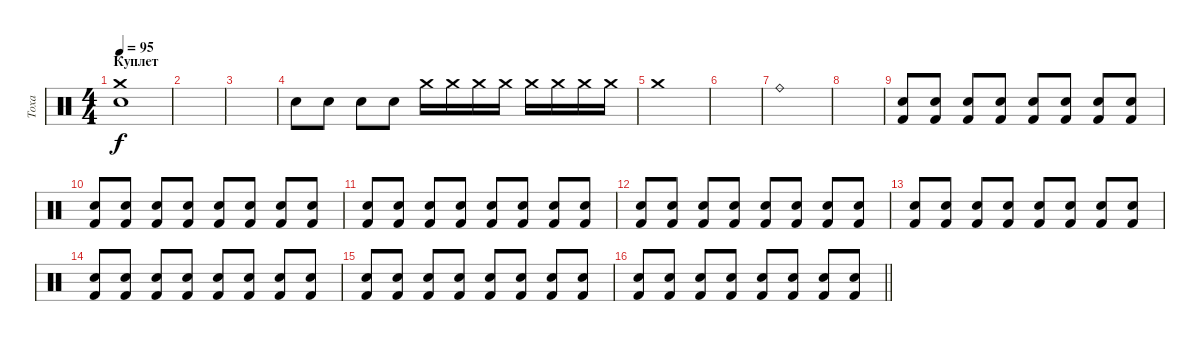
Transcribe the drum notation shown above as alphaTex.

\track ("Toxa" "Toxa") {instrument percussion}
\staff {score}
\articulation defaults
\ts (4 4)
\section ("" "Куплет")
\tempo 95
\clef neutral
\ks c
("Crash medium (hit)" "Electric Snare (hit)").1{dy f} |
|
|
"Snare (hit)".8 "Snare (hit)".8 "Snare (hit)".8 "Snare (hit)".8 "Crash medium (hit)".16{volume 5} "Crash medium (hit)".16{volume 5} "Crash medium (hit)".16{volume 6} "Crash medium (hit)".16{volume 6} "Crash medium (hit)".16{volume 7} "Crash medium (hit)".16{volume 7} "Crash medium (hit)".16{volume 8} "Crash medium (hit)".16{volume 9} |
"Crash medium (hit)".1{volume 10} |
|
"Ride (bell)".1 |
|
("Electric Snare (hit)" "Kick (hit) 2").8{volume 8} ("Electric Snare (hit)" "Kick (hit) 2").8{volume 12} ("Electric Snare (hit)" "Kick (hit) 2").8 ("Electric Snare (hit)" "Kick (hit) 2").8 ("Electric Snare (hit)" "Kick (hit) 2").8 ("Electric Snare (hit)" "Kick (hit) 2").8 ("Electric Snare (hit)" "Kick (hit) 2").8 ("Electric Snare (hit)" "Kick (hit) 2").8 |
("Electric Snare (hit)" "Kick (hit) 2").8 ("Electric Snare (hit)" "Kick (hit) 2").8 ("Electric Snare (hit)" "Kick (hit) 2").8 ("Electric Snare (hit)" "Kick (hit) 2").8 ("Electric Snare (hit)" "Kick (hit) 2").8 ("Electric Snare (hit)" "Kick (hit) 2").8 ("Electric Snare (hit)" "Kick (hit) 2").8 ("Electric Snare (hit)" "Kick (hit) 2").8 |
("Electric Snare (hit)" "Kick (hit) 2").8 ("Electric Snare (hit)" "Kick (hit) 2").8 ("Electric Snare (hit)" "Kick (hit) 2").8 ("Electric Snare (hit)" "Kick (hit) 2").8 ("Electric Snare (hit)" "Kick (hit) 2").8 ("Electric Snare (hit)" "Kick (hit) 2").8 ("Electric Snare (hit)" "Kick (hit) 2").8 ("Electric Snare (hit)" "Kick (hit) 2").8 |
("Electric Snare (hit)" "Kick (hit) 2").8 ("Electric Snare (hit)" "Kick (hit) 2").8 ("Electric Snare (hit)" "Kick (hit) 2").8 ("Electric Snare (hit)" "Kick (hit) 2").8 ("Electric Snare (hit)" "Kick (hit) 2").8 ("Electric Snare (hit)" "Kick (hit) 2").8 ("Electric Snare (hit)" "Kick (hit) 2").8 ("Electric Snare (hit)" "Kick (hit) 2").8 |
("Electric Snare (hit)" "Kick (hit) 2").8 ("Electric Snare (hit)" "Kick (hit) 2").8 ("Electric Snare (hit)" "Kick (hit) 2").8{volume 16} ("Electric Snare (hit)" "Kick (hit) 2").8 ("Electric Snare (hit)" "Kick (hit) 2").8 ("Electric Snare (hit)" "Kick (hit) 2").8 ("Electric Snare (hit)" "Kick (hit) 2").8 ("Electric Snare (hit)" "Kick (hit) 2").8 |
("Electric Snare (hit)" "Kick (hit) 2").8 ("Electric Snare (hit)" "Kick (hit) 2").8 ("Electric Snare (hit)" "Kick (hit) 2").8 ("Electric Snare (hit)" "Kick (hit) 2").8 ("Electric Snare (hit)" "Kick (hit) 2").8 ("Electric Snare (hit)" "Kick (hit) 2").8 ("Electric Snare (hit)" "Kick (hit) 2").8 ("Electric Snare (hit)" "Kick (hit) 2").8 |
("Electric Snare (hit)" "Kick (hit) 2").8 ("Electric Snare (hit)" "Kick (hit) 2").8 ("Electric Snare (hit)" "Kick (hit) 2").8 ("Electric Snare (hit)" "Kick (hit) 2").8 ("Electric Snare (hit)" "Kick (hit) 2").8 ("Electric Snare (hit)" "Kick (hit) 2").8 ("Electric Snare (hit)" "Kick (hit) 2").8 ("Electric Snare (hit)" "Kick (hit) 2").8 |
\barLineRight lightlight
("Electric Snare (hit)" "Kick (hit) 2").8 ("Electric Snare (hit)" "Kick (hit) 2").8 ("Electric Snare (hit)" "Kick (hit) 2").8 ("Electric Snare (hit)" "Kick (hit) 2").8 ("Electric Snare (hit)" "Kick (hit) 2").8 ("Electric Snare (hit)" "Kick (hit) 2").8 ("Electric Snare (hit)" "Kick (hit) 2").8 ("Electric Snare (hit)" "Kick (hit) 2").8
